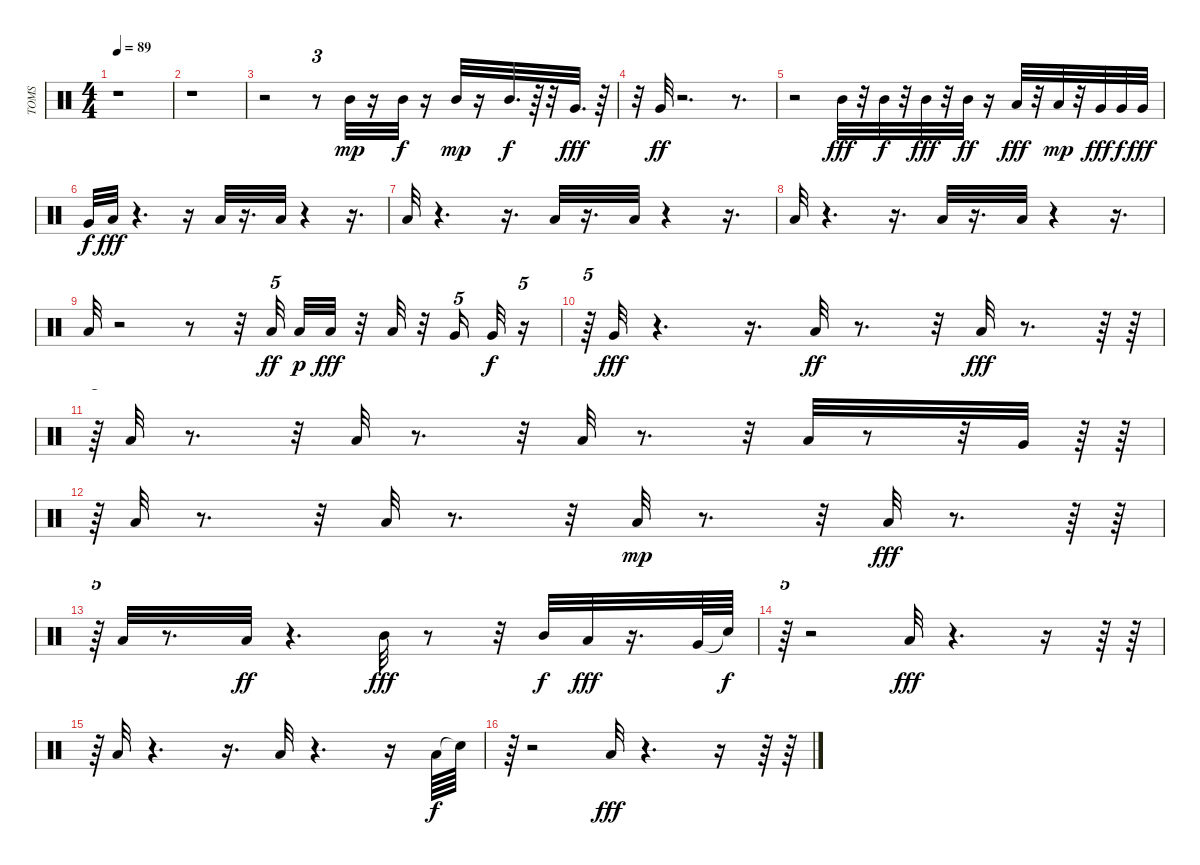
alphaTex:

\track ("TOMS" "TOMS") {instrument percussion}
\staff {score}
\articulation defaults
\ts (4 4)
\tempo 89
\clef neutral
\ks c
r.1{dy fff} |
r.1 |
r.2 r.8{tu (3 2)} "Mid Tom (hit)".32{dy mp} r.16 "Mid Tom (hit)".32{dy f} r.16 "Mid Tom (hit)".32{dy mp} r.16 "Mid Tom (hit)".32{d dy f} r.64 r.32 "Very Low Tom (hit)".32{d dy fff} r.64 |
r.32 "Very Low Tom (hit)".32{dy ff} r.2{d} r.8{d} |
r.2 "Mid Tom (hit)".32{dy fff} r.32 "Mid Tom (hit)".32{dy f} r.32 "Mid Tom (hit)".32{dy fff} r.32 "Mid Tom (hit)".32{dy ff} r.16 "Low Tom (hit)".32{dy fff} r.32 "Low Tom (hit)".32{dy mp} r.32 "Very Low Tom (hit)".32{dy fff} "Very Low Tom (hit)".32{dy f} "Very Low Tom (hit)".32{dy fff} |
"Very Low Tom (hit)".32{dy f} "Low Floor Tom (hit)".32{dy fff} r.4{d} r.16 "Low Floor Tom (hit)".32 r.16{d} "Low Floor Tom (hit)".32 r.4 r.16{d} |
"Low Floor Tom (hit)".32 r.4{d} r.16{d} "Low Floor Tom (hit)".32 r.16{d} "Low Floor Tom (hit)".32 r.4 r.16{d} |
"Low Floor Tom (hit)".32 r.4{d} r.16{d} "Low Floor Tom (hit)".32 r.16{d} "Low Floor Tom (hit)".32 r.4 r.16{d} |
"Low Floor Tom (hit)".32 r.2 r.8 r.32 "Low Tom (hit)".32{tu (5 4) dy ff beam splitsecondary} "Low Tom (hit)".32{dy p} "Low Tom (hit)".32{dy fff} r.32 "Low Tom (hit)".32 r.32 "Very Low Tom (hit)".16{tu (5 4)} "Very Low Tom (hit)".32{dy f} r.16{tu (5 4)} |
r.64{tu (5 4)} "Very Low Tom (hit)".32{dy fff} r.4{d} r.16{d} "Low Floor Tom (hit)".32{dy ff} r.8{d} r.32 "Low Floor Tom (hit)".32{dy fff} r.8{d} r.64 r.64 |
r.64{tu (5 4)} "Low Floor Tom (hit)".32 r.8{d} r.32 "Low Floor Tom (hit)".32 r.8{d} r.32 "Low Floor Tom (hit)".32 r.8{d} r.32 "Low Floor Tom (hit)".32 r.8 r.32 "Very Low Tom (hit)".32 r.64 r.64 |
r.64{tu (5 4)} "Low Floor Tom (hit)".32 r.8{d} r.32 "Low Floor Tom (hit)".32 r.8{d} r.32 "Low Floor Tom (hit)".32{dy mp} r.8{d} r.32 "Low Floor Tom (hit)".32{dy fff} r.8{d} r.64 r.64 |
r.64{tu (5 4)} "Low Floor Tom (hit)".32 r.8{d} "Low Floor Tom (hit)".32{dy ff} r.4{d} "Mid Tom (hit)".32{dy fff} r.8 r.32 "Mid Tom (hit)".32{dy f} "Low Tom (hit)".32{dy fff} r.16{d} "Very Low Tom (hit)".64 "Snare (hit)"{t}.64{dy f} |
r.64{tu (5 4)} r.2 "Low Floor Tom (hit)".32{dy fff} r.4{d} r.16 r.64 r.64 |
r.64{tu (5 4)} "Low Floor Tom (hit)".32 r.4{d} r.16{d} "Low Floor Tom (hit)".32 r.4{d} r.16 "Low Floor Tom (hit)".64{dy f} "Snare (hit)"{t}.64 |
r.64{tu (5 4)} r.2 "Low Floor Tom (hit)".32{dy fff} r.4{d} r.16 r.64 r.64
